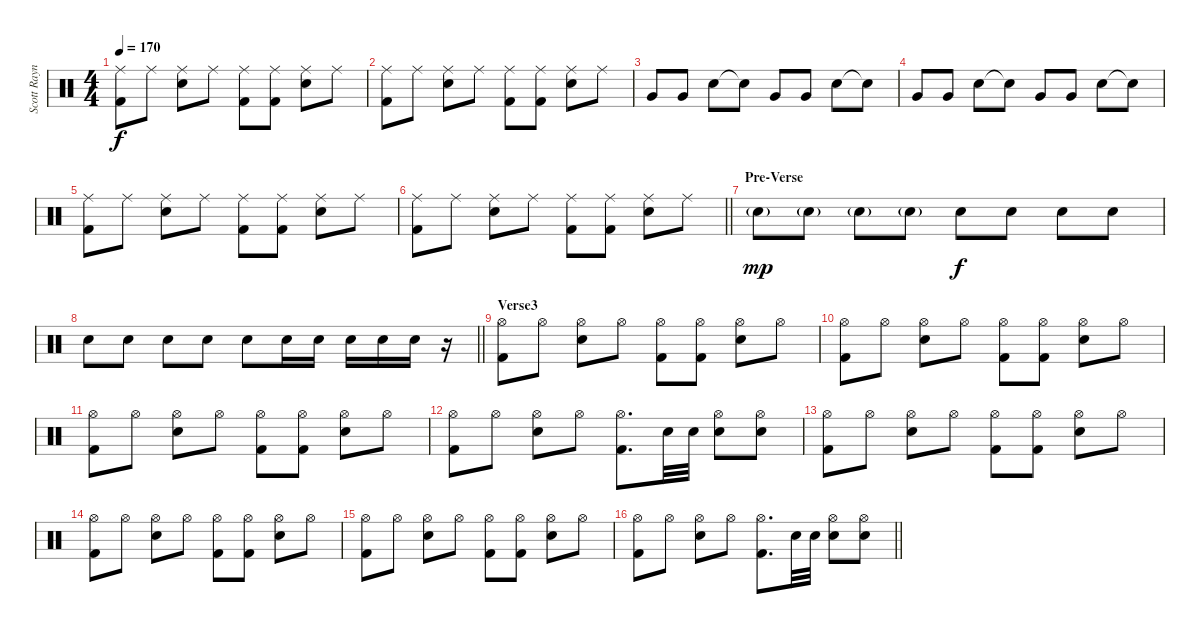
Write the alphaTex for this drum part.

\track ("Scott Raynor" "Scott Rayn") {instrument percussion}
\staff {score}
\articulation defaults
\ts (4 4)
\tempo 170
\clef neutral
\ks c
("Ride (middle)" "Kick (hit) 2").8{dy f} "Ride (middle)".8 ("Ride (middle)" "Snare (hit) 2").8 "Ride (middle)".8 ("Ride (middle)" "Kick (hit) 2").8 ("Ride (middle)" "Kick (hit) 2").8 ("Ride (middle)" "Snare (hit) 2").8 "Ride (middle)".8 |
("Ride (middle)" "Kick (hit) 2").8 "Ride (middle)".8 ("Ride (middle)" "Snare (hit) 2").8 "Ride (middle)".8 ("Ride (middle)" "Kick (hit) 2").8 ("Ride (middle)" "Kick (hit) 2").8 ("Ride (middle)" "Snare (hit) 2").8 "Ride (middle)".8 |
"Very Low Tom (hit)".8 "Very Low Tom (hit)".8 "Snare (hit) 2".8 "Snare (hit)"{t}.8 "Very Low Tom (hit)".8 "Very Low Tom (hit)".8 "Snare (hit) 2".8 "Snare (hit)"{t}.8 |
"Very Low Tom (hit)".8 "Very Low Tom (hit)".8 "Snare (hit) 2".8 "Snare (hit)"{t}.8 "Very Low Tom (hit)".8 "Very Low Tom (hit)".8 "Snare (hit) 2".8 "Snare (hit)"{t}.8 |
("Ride (middle)" "Kick (hit) 2").8 "Ride (middle)".8 ("Ride (middle)" "Snare (hit) 2").8 "Ride (middle)".8 ("Ride (middle)" "Kick (hit) 2").8 ("Ride (middle)" "Kick (hit) 2").8 ("Ride (middle)" "Snare (hit) 2").8 "Ride (middle)".8 |
\barLineRight lightlight
("Ride (middle)" "Kick (hit) 2").8 "Ride (middle)".8 ("Ride (middle)" "Snare (hit) 2").8 "Ride (middle)".8 ("Ride (middle)" "Kick (hit) 2").8 ("Ride (middle)" "Kick (hit) 2").8 ("Ride (middle)" "Snare (hit) 2").8 "Ride (middle)".8 |
\section ("" "Pre-Verse")
"Snare (hit) 2"{g}.8{dy mp} "Snare (hit) 2"{g}.8 "Snare (hit) 2"{g}.8 "Snare (hit) 2"{g}.8 "Snare (hit) 2".8{dy f} "Snare (hit) 2".8 "Snare (hit) 2".8 "Snare (hit) 2".8 |
\barLineRight lightlight "Snare (hit) 2".8 "Snare (hit) 2".8 "Snare (hit) 2".8 "Snare (hit) 2".8 "Snare (hit) 2".8 "Snare (hit) 2".16 "Snare (hit) 2".16 "Snare (hit) 2".16 "Snare (hit) 2".16 "Snare (hit) 2".16
r.16 |
\section ("" "Verse3")
("Hi-Hat (open)" "Kick (hit) 2").8 "Hi-Hat (open)".8 ("Hi-Hat (open)" "Snare (hit) 2").8 "Hi-Hat (open)".8 ("Hi-Hat (open)" "Kick (hit) 2").8 ("Hi-Hat (open)" "Kick (hit) 2").8 ("Hi-Hat (open)" "Snare (hit) 2").8 "Hi-Hat (open)".8 |
("Hi-Hat (open)" "Kick (hit) 2").8 "Hi-Hat (open)".8 ("Hi-Hat (open)" "Snare (hit) 2").8 "Hi-Hat (open)".8 ("Hi-Hat (open)" "Kick (hit) 2").8 ("Hi-Hat (open)" "Kick (hit) 2").8 ("Hi-Hat (open)" "Snare (hit) 2").8 "Hi-Hat (open)".8 |
("Hi-Hat (open)" "Kick (hit) 2").8 "Hi-Hat (open)".8 ("Hi-Hat (open)" "Snare (hit) 2").8 "Hi-Hat (open)".8 ("Hi-Hat (open)" "Kick (hit) 2").8 ("Hi-Hat (open)" "Kick (hit) 2").8 ("Hi-Hat (open)" "Snare (hit) 2").8 "Hi-Hat (open)".8 |
("Hi-Hat (open)" "Kick (hit) 2").8 "Hi-Hat (open)".8 ("Hi-Hat (open)" "Snare (hit) 2").8 "Hi-Hat (open)".8 ("Hi-Hat (open)" "Kick (hit) 2").8{d} "Snare (hit) 2".32 "Snare (hit) 2".32 ("Hi-Hat (open)" "Snare (hit) 2").8 ("Hi-Hat (open)" "Snare (hit) 2").8 |
("Hi-Hat (open)" "Kick (hit) 2").8 "Hi-Hat (open)".8 ("Hi-Hat (open)" "Snare (hit) 2").8 "Hi-Hat (open)".8 ("Hi-Hat (open)" "Kick (hit) 2").8 ("Hi-Hat (open)" "Kick (hit) 2").8 ("Hi-Hat (open)" "Snare (hit) 2").8 "Hi-Hat (open)".8 |
("Hi-Hat (open)" "Kick (hit) 2").8 "Hi-Hat (open)".8 ("Hi-Hat (open)" "Snare (hit) 2").8 "Hi-Hat (open)".8 ("Hi-Hat (open)" "Kick (hit) 2").8 ("Hi-Hat (open)" "Kick (hit) 2").8 ("Hi-Hat (open)" "Snare (hit) 2").8 "Hi-Hat (open)".8 |
("Hi-Hat (open)" "Kick (hit) 2").8 "Hi-Hat (open)".8 ("Hi-Hat (open)" "Snare (hit) 2").8 "Hi-Hat (open)".8 ("Hi-Hat (open)" "Kick (hit) 2").8 ("Hi-Hat (open)" "Kick (hit) 2").8 ("Hi-Hat (open)" "Snare (hit) 2").8 "Hi-Hat (open)".8 |
\barLineRight lightlight
("Hi-Hat (open)" "Kick (hit) 2").8 "Hi-Hat (open)".8 ("Hi-Hat (open)" "Snare (hit) 2").8 "Hi-Hat (open)".8 ("Hi-Hat (open)" "Kick (hit) 2").8{d} "Snare (hit) 2".32 "Snare (hit) 2".32 ("Hi-Hat (open)" "Snare (hit) 2").8 ("Hi-Hat (open)" "Snare (hit) 2").8
